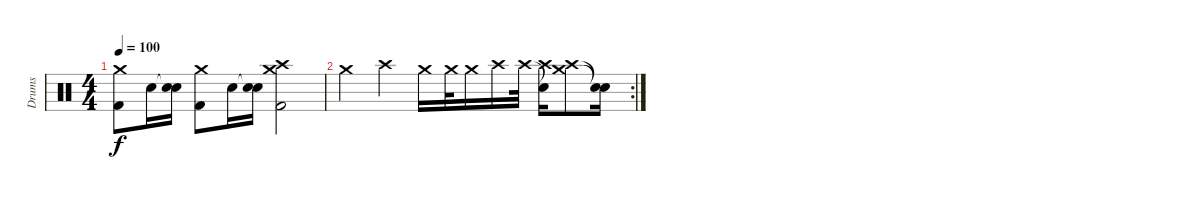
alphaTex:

\track ("Drums" "Drums") {instrument percussion}
\staff {score}
\articulation defaults
\ts (4 4)
\tempo 100
\clef neutral
\ks c
("Crash medium (hit)" "Kick (hit) 2").8{dy f} "Snare (hit) 2".16 ("Snare (hit)"{t} "Snare (hit) 2").16 ("Crash medium (hit)" "Kick (hit) 2").8 "Snare (hit) 2".16 ("Snare (hit)"{t} "Snare (hit) 2").16 ("Crash medium (hit)" "Crash high (hit)" "Kick (hit) 2").2 |
\rc 2 "Crash medium (hit)".4 "Crash high (hit)".4 "Crash medium (hit)".16 "Crash medium (hit)".32 "Crash medium (hit)".16 "Crash high (hit)".16 "Crash high (hit)".32
("Snare (hit)"{t} "Crash high (hit)").16 ("Crash medium (hit)" "Crash high (hit)").8 ("Snare (hit)"{t} "Snare (hit)"{t}).16
